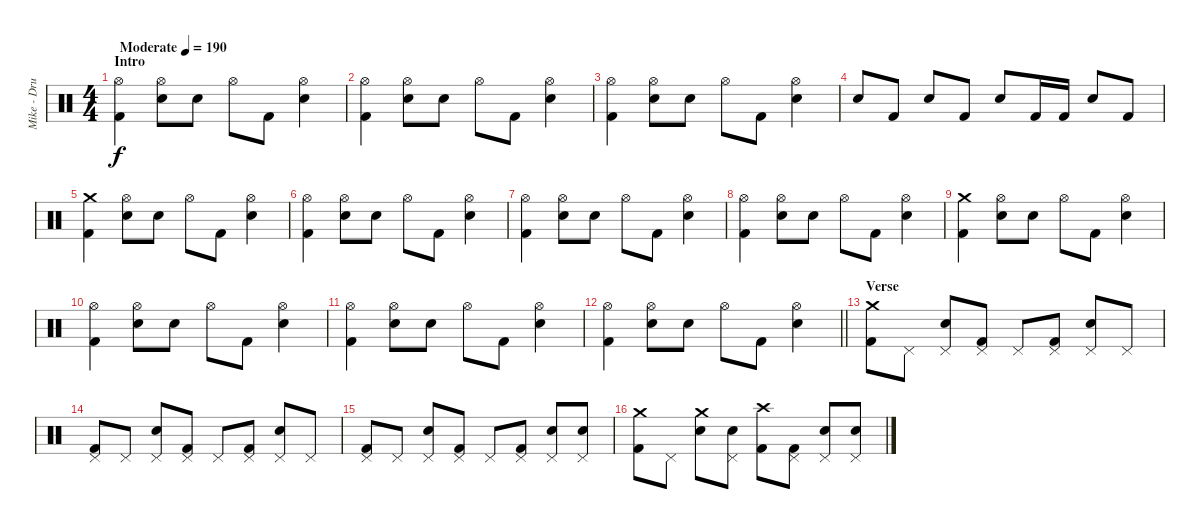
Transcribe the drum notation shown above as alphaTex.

\track ("Mike - Drums" "Mike - Dru") {instrument percussion}
\staff {score}
\articulation defaults
\ts (4 4)
\section ("" "Intro")
\tempo (190 "Moderate")
\clef neutral
\ks c
("Hi-Hat (open)" "Kick (hit) 2").4{dy f} ("Hi-Hat (open)" "Electric Snare (hit)").8 "Electric Snare (hit)".8 "Hi-Hat (open)".8 "Kick (hit) 2".8 ("Hi-Hat (open)" "Electric Snare (hit)").4 |
("Hi-Hat (open)" "Kick (hit) 2").4 ("Hi-Hat (open)" "Electric Snare (hit)").8 "Electric Snare (hit)".8 "Hi-Hat (open)".8 "Kick (hit) 2".8 ("Hi-Hat (open)" "Electric Snare (hit)").4 |
("Hi-Hat (open)" "Kick (hit) 2").4 ("Hi-Hat (open)" "Electric Snare (hit)").8 "Electric Snare (hit)".8 "Hi-Hat (open)".8 "Kick (hit) 2".8 ("Hi-Hat (open)" "Electric Snare (hit)").4 |
"Electric Snare (hit)".8 "Kick (hit) 2".8 "Electric Snare (hit)".8 "Kick (hit) 2".8 "Electric Snare (hit)".8 "Kick (hit) 2".16 "Kick (hit) 2".16 "Electric Snare (hit)".8 "Kick (hit) 2".8 |
("Crash medium (hit)" "Kick (hit) 2").4 ("Hi-Hat (open)" "Electric Snare (hit)").8 "Electric Snare (hit)".8 "Hi-Hat (open)".8 "Kick (hit) 2".8 ("Hi-Hat (open)" "Electric Snare (hit)").4 |
("Hi-Hat (open)" "Kick (hit) 2").4 ("Hi-Hat (open)" "Electric Snare (hit)").8 "Electric Snare (hit)".8 "Hi-Hat (open)".8 "Kick (hit) 2".8 ("Hi-Hat (open)" "Electric Snare (hit)").4 |
("Hi-Hat (open)" "Kick (hit) 2").4 ("Hi-Hat (open)" "Electric Snare (hit)").8 "Electric Snare (hit)".8 "Hi-Hat (open)".8 "Kick (hit) 2".8 ("Hi-Hat (open)" "Electric Snare (hit)").4 |
("Hi-Hat (open)" "Kick (hit) 2").4 ("Hi-Hat (open)" "Electric Snare (hit)").8 "Electric Snare (hit)".8 "Hi-Hat (open)".8 "Kick (hit) 2".8 ("Hi-Hat (open)" "Electric Snare (hit)").4 |
("Crash medium (hit)" "Kick (hit) 2").4 ("Hi-Hat (open)" "Electric Snare (hit)").8 "Electric Snare (hit)".8 "Hi-Hat (open)".8 "Kick (hit) 2".8 ("Hi-Hat (open)" "Electric Snare (hit)").4 |
("Hi-Hat (open)" "Kick (hit) 2").4 ("Hi-Hat (open)" "Electric Snare (hit)").8 "Electric Snare (hit)".8 "Hi-Hat (open)".8 "Kick (hit) 2".8 ("Hi-Hat (open)" "Electric Snare (hit)").4 |
("Hi-Hat (open)" "Kick (hit) 2").4 ("Hi-Hat (open)" "Electric Snare (hit)").8 "Electric Snare (hit)".8 "Hi-Hat (open)".8 "Kick (hit) 2".8 ("Hi-Hat (open)" "Electric Snare (hit)").4 |
\barLineRight lightlight
("Hi-Hat (open)" "Kick (hit) 2").4 ("Hi-Hat (open)" "Electric Snare (hit)").8 "Electric Snare (hit)".8 "Hi-Hat (open)".8 "Kick (hit) 2".8 ("Hi-Hat (open)" "Electric Snare (hit)").4 |
\section ("" "Verse")
("Crash medium (hit)" "Kick (hit) 2").8 "Pedal Hi-Hat (hit)".8 ("Pedal Hi-Hat (hit)" "Electric Snare (hit)").8 ("Pedal Hi-Hat (hit)" "Kick (hit) 2").8 "Pedal Hi-Hat (hit)".8 ("Pedal Hi-Hat (hit)" "Kick (hit) 2").8 ("Pedal Hi-Hat (hit)" "Electric Snare (hit)").8 "Pedal Hi-Hat (hit)".8 |
("Pedal Hi-Hat (hit)" "Kick (hit) 2").8 "Pedal Hi-Hat (hit)".8 ("Pedal Hi-Hat (hit)" "Electric Snare (hit)").8 ("Pedal Hi-Hat (hit)" "Kick (hit) 2").8 "Pedal Hi-Hat (hit)".8 ("Pedal Hi-Hat (hit)" "Kick (hit) 2").8 ("Pedal Hi-Hat (hit)" "Electric Snare (hit)").8 "Pedal Hi-Hat (hit)".8 |
("Pedal Hi-Hat (hit)" "Kick (hit) 2").8 "Pedal Hi-Hat (hit)".8 ("Pedal Hi-Hat (hit)" "Electric Snare (hit)").8 ("Pedal Hi-Hat (hit)" "Kick (hit) 2").8 "Pedal Hi-Hat (hit)".8 ("Pedal Hi-Hat (hit)" "Kick (hit) 2").8 ("Pedal Hi-Hat (hit)" "Electric Snare (hit)").8 ("Pedal Hi-Hat (hit)" "Electric Snare (hit)").8 |
("Crash medium (hit)" "Kick (hit) 2").8 "Pedal Hi-Hat (hit)".8 ("Crash medium (hit)" "Electric Snare (hit)").8 ("Pedal Hi-Hat (hit)" "Electric Snare (hit)").8 ("Crash high (hit)" "Kick (hit) 2").8 ("Pedal Hi-Hat (hit)" "Kick (hit) 2").8 ("Pedal Hi-Hat (hit)" "Electric Snare (hit)").8 ("Pedal Hi-Hat (hit)" "Electric Snare (hit)").8
